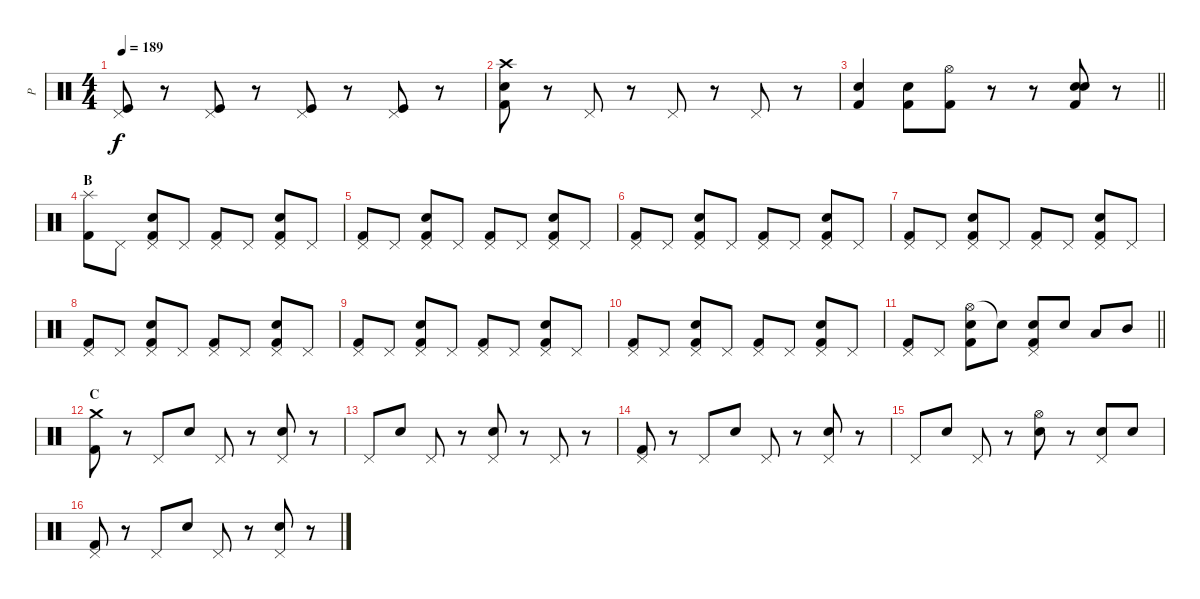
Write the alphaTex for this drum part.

\track ("P" "P") {instrument percussion}
\staff {score}
\articulation defaults
\ts (4 4)
\tempo 189
\clef neutral
\ks c
("Pedal Hi-Hat (hit)" "Kick (hit)").8{dy f} r.8 ("Pedal Hi-Hat (hit)" "Kick (hit)").8 r.8 ("Pedal Hi-Hat (hit)" "Kick (hit)").8 r.8 ("Pedal Hi-Hat (hit)" "Kick (hit)").8 r.8 |
("Crash high (hit)" "Electric Snare (hit)" "Kick (hit) 2").8 r.8 "Pedal Hi-Hat (hit)".8 r.8 "Pedal Hi-Hat (hit)".8 r.8 "Pedal Hi-Hat (hit)".8 r.8 |
\barLineRight lightlight
("Snare (hit) 2" "Kick (hit) 2").4 ("Snare (hit) 2" "Kick (hit) 2").8 ("Hi-Hat (open)" "Kick (hit) 2").8 r.8 r.8 ("Snare (hit) 2" "Snare (hit) 2" "Kick (hit) 2").8{bd 120} r.8 |
\section ("" "B")
("Splash (hit)" "Kick (hit) 2").8 "Pedal Hi-Hat (hit)".8 ("Pedal Hi-Hat (hit)" "Electric Snare (hit)" "Kick (hit) 2").8 "Pedal Hi-Hat (hit)".8 ("Pedal Hi-Hat (hit)" "Kick (hit) 2").8 "Pedal Hi-Hat (hit)".8 ("Pedal Hi-Hat (hit)" "Electric Snare (hit)" "Kick (hit) 2").8 "Pedal Hi-Hat (hit)".8 |
("Pedal Hi-Hat (hit)" "Kick (hit) 2").8 "Pedal Hi-Hat (hit)".8 ("Pedal Hi-Hat (hit)" "Electric Snare (hit)" "Kick (hit) 2").8 "Pedal Hi-Hat (hit)".8 ("Pedal Hi-Hat (hit)" "Kick (hit) 2").8 "Pedal Hi-Hat (hit)".8 ("Pedal Hi-Hat (hit)" "Electric Snare (hit)" "Kick (hit) 2").8 "Pedal Hi-Hat (hit)".8 |
("Pedal Hi-Hat (hit)" "Kick (hit) 2").8 "Pedal Hi-Hat (hit)".8 ("Pedal Hi-Hat (hit)" "Electric Snare (hit)" "Kick (hit) 2").8 "Pedal Hi-Hat (hit)".8 ("Pedal Hi-Hat (hit)" "Kick (hit) 2").8 "Pedal Hi-Hat (hit)".8 ("Pedal Hi-Hat (hit)" "Electric Snare (hit)" "Kick (hit) 2").8 "Pedal Hi-Hat (hit)".8 |
("Pedal Hi-Hat (hit)" "Kick (hit) 2").8 "Pedal Hi-Hat (hit)".8 ("Pedal Hi-Hat (hit)" "Electric Snare (hit)" "Kick (hit) 2").8 "Pedal Hi-Hat (hit)".8 ("Pedal Hi-Hat (hit)" "Kick (hit) 2").8 "Pedal Hi-Hat (hit)".8 ("Pedal Hi-Hat (hit)" "Electric Snare (hit)" "Kick (hit) 2").8 "Pedal Hi-Hat (hit)".8 |
("Pedal Hi-Hat (hit)" "Kick (hit) 2").8 "Pedal Hi-Hat (hit)".8 ("Pedal Hi-Hat (hit)" "Electric Snare (hit)" "Kick (hit) 2").8 "Pedal Hi-Hat (hit)".8 ("Pedal Hi-Hat (hit)" "Kick (hit) 2").8 "Pedal Hi-Hat (hit)".8 ("Pedal Hi-Hat (hit)" "Electric Snare (hit)" "Kick (hit) 2").8 "Pedal Hi-Hat (hit)".8 |
("Pedal Hi-Hat (hit)" "Kick (hit) 2").8 "Pedal Hi-Hat (hit)".8 ("Pedal Hi-Hat (hit)" "Electric Snare (hit)" "Kick (hit) 2").8 "Pedal Hi-Hat (hit)".8 ("Pedal Hi-Hat (hit)" "Kick (hit) 2").8 "Pedal Hi-Hat (hit)".8 ("Pedal Hi-Hat (hit)" "Electric Snare (hit)" "Kick (hit) 2").8 "Pedal Hi-Hat (hit)".8 |
("Pedal Hi-Hat (hit)" "Kick (hit) 2").8 "Pedal Hi-Hat (hit)".8 ("Pedal Hi-Hat (hit)" "Electric Snare (hit)" "Kick (hit) 2").8 "Pedal Hi-Hat (hit)".8 ("Pedal Hi-Hat (hit)" "Kick (hit) 2").8 "Pedal Hi-Hat (hit)".8 ("Pedal Hi-Hat (hit)" "Electric Snare (hit)" "Kick (hit) 2").8 "Pedal Hi-Hat (hit)".8 |
\barLineRight lightlight
("Pedal Hi-Hat (hit)" "Kick (hit) 2").8 "Pedal Hi-Hat (hit)".8 ("Hi-Hat (open)" "Electric Snare (hit)" "Kick (hit) 2").8 "Snare (hit)"{t}.8 ("Pedal Hi-Hat (hit)" "Electric Snare (hit)" "Kick (hit) 2").8 "Electric Snare (hit)".8 "Low Tom (hit)".8 "Mid Tom (hit)".8 |
\section ("" "C")
("Crash medium (hit)" "Kick (hit) 2").8 r.8 "Pedal Hi-Hat (hit)".8 "Electric Snare (hit)".8 "Pedal Hi-Hat (hit)".8 r.8 ("Pedal Hi-Hat (hit)" "Electric Snare (hit)").8 r.8 |
"Pedal Hi-Hat (hit)".8 "Electric Snare (hit)".8 "Pedal Hi-Hat (hit)".8 r.8 ("Pedal Hi-Hat (hit)" "Electric Snare (hit)").8 r.8 "Pedal Hi-Hat (hit)".8 r.8 |
("Pedal Hi-Hat (hit)" "Kick (hit) 2").8 r.8 "Pedal Hi-Hat (hit)".8 "Electric Snare (hit)".8 "Pedal Hi-Hat (hit)".8 r.8 ("Pedal Hi-Hat (hit)" "Electric Snare (hit)").8 r.8 |
"Pedal Hi-Hat (hit)".8 "Electric Snare (hit)".8 "Pedal Hi-Hat (hit)".8 r.8 ("Hi-Hat (open)" "Electric Snare (hit)").8 r.8 ("Pedal Hi-Hat (hit)" "Electric Snare (hit)").8 "Electric Snare (hit)".8 |
("Pedal Hi-Hat (hit)" "Kick (hit) 2").8 r.8 "Pedal Hi-Hat (hit)".8 "Electric Snare (hit)".8 "Pedal Hi-Hat (hit)".8 r.8 ("Pedal Hi-Hat (hit)" "Electric Snare (hit)").8 r.8
